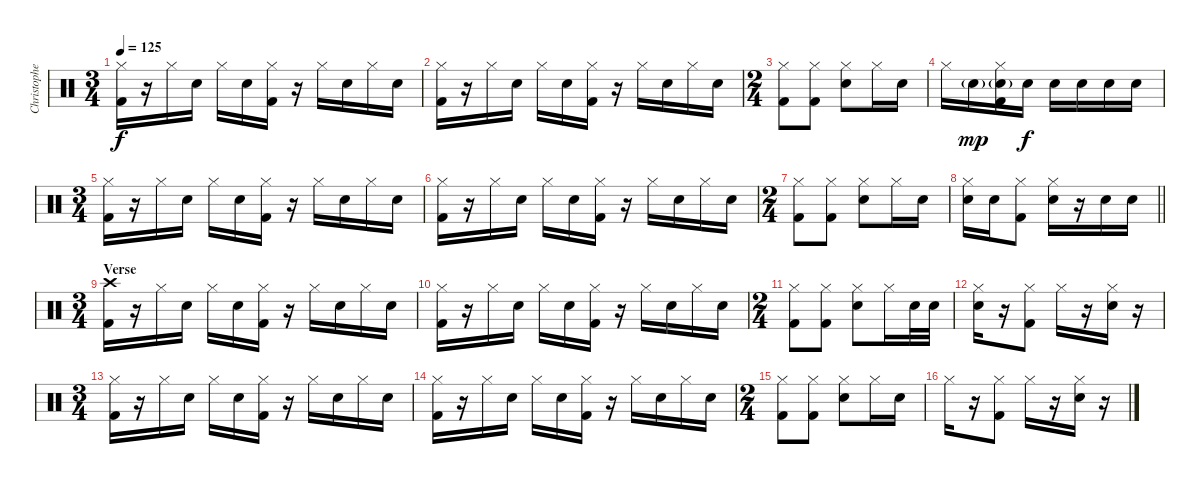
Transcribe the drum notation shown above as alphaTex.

\track ("Christopher - Drums" "Christophe") {instrument percussion}
\staff {score}
\articulation defaults
\ts (3 4)
\tempo 125
\clef neutral
\ks c
("Hi-Hat (closed)" "Kick (hit) 2").16{dy f} r.16 "Hi-Hat (closed)".16 "Electric Snare (hit)".16 "Hi-Hat (closed)".16 "Electric Snare (hit)".16 ("Hi-Hat (closed)" "Kick (hit) 2").16 r.16 "Hi-Hat (closed)".16 "Electric Snare (hit)".16 "Hi-Hat (closed)".16 "Electric Snare (hit)".16 |
("Hi-Hat (closed)" "Kick (hit) 2").16 r.16 "Hi-Hat (closed)".16 "Electric Snare (hit)".16 "Hi-Hat (closed)".16 "Electric Snare (hit)".16 ("Hi-Hat (closed)" "Kick (hit) 2").16 r.16 "Hi-Hat (closed)".16 "Electric Snare (hit)".16 "Hi-Hat (closed)".16 "Electric Snare (hit)".16 |
\ts (2 4)
("Hi-Hat (closed)" "Kick (hit) 2").8 ("Hi-Hat (closed)" "Kick (hit) 2").8 ("Hi-Hat (closed)" "Electric Snare (hit)").8 "Hi-Hat (closed)".16 "Electric Snare (hit)".16 |
"Hi-Hat (closed)".16 "Electric Snare (hit)"{g}.16{dy mp} ("Hi-Hat (closed)" "Electric Snare (hit)"{g} "Kick (hit) 2").16 "Electric Snare (hit)".16{dy f} "Electric Snare (hit)".16 "Electric Snare (hit)".16 "Electric Snare (hit)".16 "Electric Snare (hit)".16 |
\ts (3 4)
("Hi-Hat (closed)" "Kick (hit) 2").16 r.16 "Hi-Hat (closed)".16 "Electric Snare (hit)".16 "Hi-Hat (closed)".16 "Electric Snare (hit)".16 ("Hi-Hat (closed)" "Kick (hit) 2").16 r.16 "Hi-Hat (closed)".16 "Electric Snare (hit)".16 "Hi-Hat (closed)".16 "Electric Snare (hit)".16 |
("Hi-Hat (closed)" "Kick (hit) 2").16 r.16 "Hi-Hat (closed)".16 "Electric Snare (hit)".16 "Hi-Hat (closed)".16 "Electric Snare (hit)".16 ("Hi-Hat (closed)" "Kick (hit) 2").16 r.16 "Hi-Hat (closed)".16 "Electric Snare (hit)".16 "Hi-Hat (closed)".16 "Electric Snare (hit)".16 |
\ts (2 4)
("Hi-Hat (closed)" "Kick (hit) 2").8 ("Hi-Hat (closed)" "Kick (hit) 2").8 ("Hi-Hat (closed)" "Electric Snare (hit)").8 "Hi-Hat (closed)".16 "Electric Snare (hit)".16 |
\barLineRight lightlight
("Hi-Hat (closed)" "Electric Snare (hit)").16 "Electric Snare (hit)".16 ("Hi-Hat (closed)" "Kick (hit) 2").8 ("Hi-Hat (closed)" "Electric Snare (hit)").16 r.16 "Electric Snare (hit)".16 "Electric Snare (hit)".16 |
\ts (3 4)
\section ("" "Verse")
("Crash high (hit)" "Kick (hit) 2").16 r.16 "Hi-Hat (closed)".16 "Electric Snare (hit)".16 "Hi-Hat (closed)".16 "Electric Snare (hit)".16 ("Hi-Hat (closed)" "Kick (hit) 2").16 r.16 "Hi-Hat (closed)".16 "Electric Snare (hit)".16 "Hi-Hat (closed)".16 "Electric Snare (hit)".16 |
("Hi-Hat (closed)" "Kick (hit) 2").16 r.16 "Hi-Hat (closed)".16 "Electric Snare (hit)".16 "Hi-Hat (closed)".16 "Electric Snare (hit)".16 ("Hi-Hat (closed)" "Kick (hit) 2").16 r.16 "Hi-Hat (closed)".16 "Electric Snare (hit)".16 "Hi-Hat (closed)".16 "Electric Snare (hit)".16 |
\ts (2 4)
("Hi-Hat (closed)" "Kick (hit) 2").8 ("Hi-Hat (closed)" "Kick (hit) 2").8 ("Hi-Hat (closed)" "Electric Snare (hit)").8 "Hi-Hat (closed)".16 "Electric Snare (hit)".32 "Electric Snare (hit)".32 |
("Hi-Hat (closed)" "Electric Snare (hit)").16 r.16 ("Hi-Hat (closed)" "Kick (hit) 2").8 "Hi-Hat (closed)".16 r.16 ("Hi-Hat (closed)" "Electric Snare (hit)").16 r.16 |
\ts (3 4)
("Hi-Hat (closed)" "Kick (hit) 2").16 r.16 "Hi-Hat (closed)".16 "Electric Snare (hit)".16 "Hi-Hat (closed)".16 "Electric Snare (hit)".16 ("Hi-Hat (closed)" "Kick (hit) 2").16 r.16 "Hi-Hat (closed)".16 "Electric Snare (hit)".16 "Hi-Hat (closed)".16 "Electric Snare (hit)".16 |
("Hi-Hat (closed)" "Kick (hit) 2").16 r.16 "Hi-Hat (closed)".16 "Electric Snare (hit)".16 "Hi-Hat (closed)".16 "Electric Snare (hit)".16 ("Hi-Hat (closed)" "Kick (hit) 2").16 r.16 "Hi-Hat (closed)".16 "Electric Snare (hit)".16 "Hi-Hat (closed)".16 "Electric Snare (hit)".16 |
\ts (2 4)
("Hi-Hat (closed)" "Kick (hit) 2").8 ("Hi-Hat (closed)" "Kick (hit) 2").8 ("Hi-Hat (closed)" "Electric Snare (hit)").8 "Hi-Hat (closed)".16 "Electric Snare (hit)".16 |
"Hi-Hat (closed)".16 r.16 ("Hi-Hat (closed)" "Kick (hit) 2").8 "Hi-Hat (closed)".16 r.16 ("Hi-Hat (closed)" "Electric Snare (hit)").16 r.16
